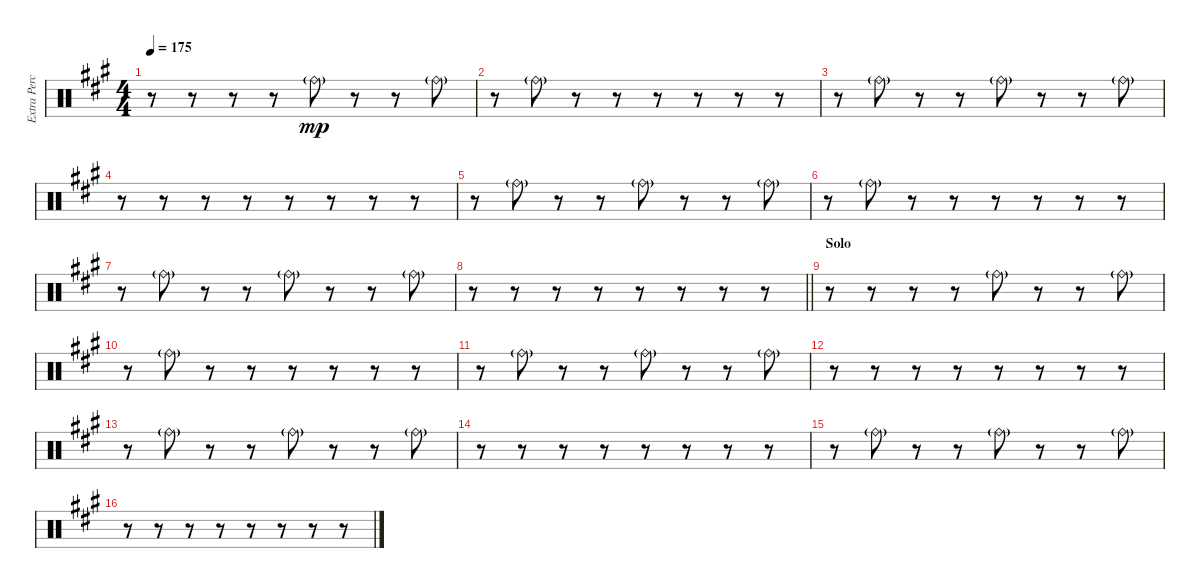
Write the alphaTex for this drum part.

\track ("Extra Percussion" "Extra Perc") {instrument percussion}
\staff {score}
\articulation defaults
\ts (4 4)
\tempo 175
\clef neutral
\ks f#minor
r.8{dy mp} r.8 r.8 r.8 "Ride (bell)"{g}.8 r.8 r.8 "Ride (bell)"{g}.8 |
r.8 "Ride (bell)"{g}.8 r.8 r.8 r.8 r.8 r.8 r.8 |
r.8 "Ride (bell)"{g}.8 r.8 r.8 "Ride (bell)"{g}.8 r.8 r.8 "Ride (bell)"{g}.8 |
r.8 r.8 r.8 r.8 r.8 r.8 r.8 r.8 |
r.8 "Ride (bell)"{g}.8 r.8 r.8 "Ride (bell)"{g}.8 r.8 r.8 "Ride (bell)"{g}.8 |
r.8 "Ride (bell)"{g}.8 r.8 r.8 r.8 r.8 r.8 r.8 |
r.8 "Ride (bell)"{g}.8 r.8 r.8 "Ride (bell)"{g}.8 r.8 r.8 "Ride (bell)"{g}.8 |
\barLineRight lightlight
r.8 r.8 r.8 r.8 r.8 r.8 r.8 r.8 |
\section ("" "Solo")
r.8 r.8 r.8 r.8 "Ride (bell)"{g}.8 r.8 r.8 "Ride (bell)"{g}.8 |
r.8 "Ride (bell)"{g}.8 r.8 r.8 r.8 r.8 r.8 r.8 |
r.8 "Ride (bell)"{g}.8 r.8 r.8 "Ride (bell)"{g}.8 r.8 r.8 "Ride (bell)"{g}.8 |
r.8 r.8 r.8 r.8 r.8 r.8 r.8 r.8 |
r.8 "Ride (bell)"{g}.8 r.8 r.8 "Ride (bell)"{g}.8 r.8 r.8 "Ride (bell)"{g}.8 |
r.8 r.8 r.8 r.8 r.8 r.8 r.8 r.8 |
r.8 "Ride (bell)"{g}.8 r.8 r.8 "Ride (bell)"{g}.8 r.8 r.8 "Ride (bell)"{g}.8 |
r.8 r.8 r.8 r.8 r.8 r.8 r.8 r.8
